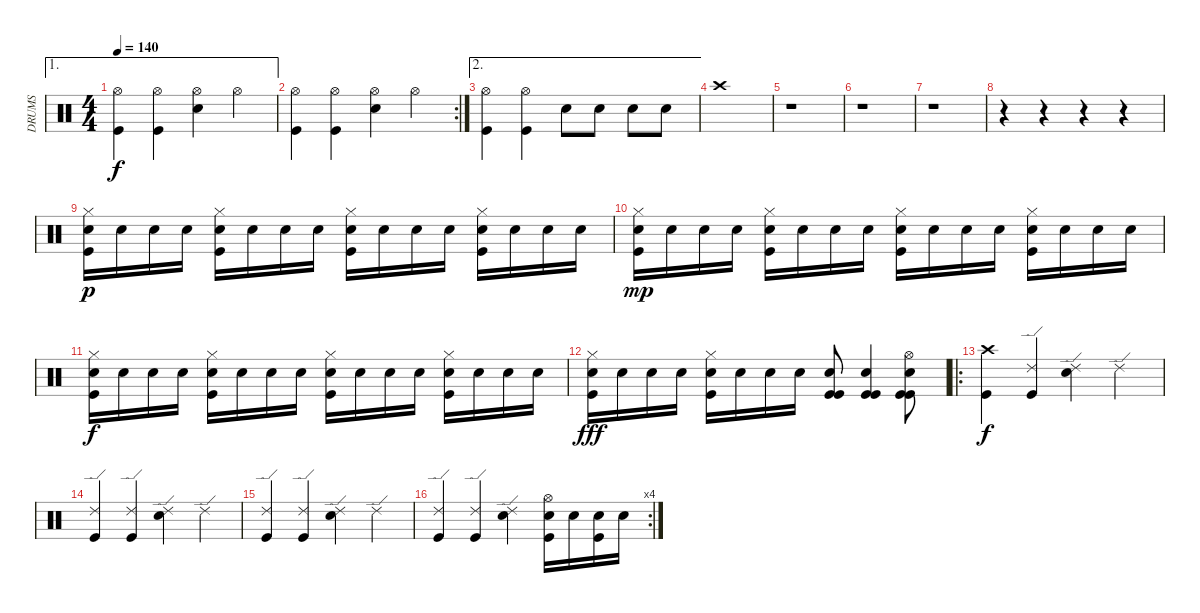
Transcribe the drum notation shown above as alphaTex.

\track ("DRUMS" "DRUMS") {instrument percussion}
\staff {score}
\articulation defaults
\ae 1
\ts (4 4)
\tempo 140
\clef neutral
\ks c
("Hi-Hat (open)" "Kick (hit)").4{dy f} ("Hi-Hat (open)" "Kick (hit)").4 ("Hi-Hat (open)" "Electric Snare (hit)").4 "Hi-Hat (open)".4 |
\rc 2
("Hi-Hat (open)" "Kick (hit)").4 ("Hi-Hat (open)" "Kick (hit)").4 ("Hi-Hat (open)" "Electric Snare (hit)").4 "Hi-Hat (open)".4 |
\ae 2
("Hi-Hat (open)" "Kick (hit)").4 ("Hi-Hat (open)" "Kick (hit)").4 "Electric Snare (hit)".8 "Electric Snare (hit)".8 "Electric Snare (hit)".8 "Electric Snare (hit)".8 |
"Crash high (hit)".1 |
r.1 |
r.1 |
r.1 |
r.4 r.4 r.4 r.4 |
("Electric Snare (hit)" "Hi-Hat (closed)" "Kick (hit)").16{dy p} "Electric Snare (hit)".16 "Electric Snare (hit)".16 "Electric Snare (hit)".16 ("Electric Snare (hit)" "Hi-Hat (closed)" "Kick (hit)").16 "Electric Snare (hit)".16 "Electric Snare (hit)".16 "Electric Snare (hit)".16 ("Electric Snare (hit)" "Hi-Hat (closed)" "Kick (hit)").16 "Electric Snare (hit)".16 "Electric Snare (hit)".16 "Electric Snare (hit)".16 ("Electric Snare (hit)" "Hi-Hat (closed)" "Kick (hit)").16 "Electric Snare (hit)".16 "Electric Snare (hit)".16 "Electric Snare (hit)".16 |
("Electric Snare (hit)" "Hi-Hat (closed)" "Kick (hit)").16{dy mp} "Electric Snare (hit)".16 "Electric Snare (hit)".16 "Electric Snare (hit)".16 ("Electric Snare (hit)" "Hi-Hat (closed)" "Kick (hit)").16 "Electric Snare (hit)".16 "Electric Snare (hit)".16 "Electric Snare (hit)".16 ("Electric Snare (hit)" "Hi-Hat (closed)" "Kick (hit)").16 "Electric Snare (hit)".16 "Electric Snare (hit)".16 "Electric Snare (hit)".16 ("Electric Snare (hit)" "Hi-Hat (closed)" "Kick (hit)").16 "Electric Snare (hit)".16 "Electric Snare (hit)".16 "Electric Snare (hit)".16 |
("Electric Snare (hit)" "Hi-Hat (closed)" "Kick (hit)").16{dy f} "Electric Snare (hit)".16 "Electric Snare (hit)".16 "Electric Snare (hit)".16 ("Electric Snare (hit)" "Hi-Hat (closed)" "Kick (hit)").16 "Electric Snare (hit)".16 "Electric Snare (hit)".16 "Electric Snare (hit)".16 ("Electric Snare (hit)" "Hi-Hat (closed)" "Kick (hit)").16 "Electric Snare (hit)".16 "Electric Snare (hit)".16 "Electric Snare (hit)".16 ("Electric Snare (hit)" "Hi-Hat (closed)" "Kick (hit)").16 "Electric Snare (hit)".16 "Electric Snare (hit)".16 "Electric Snare (hit)".16 |
("Electric Snare (hit)" "Hi-Hat (closed)" "Kick (hit)").16{dy fff} "Electric Snare (hit)".16 "Electric Snare (hit)".16 "Electric Snare (hit)".16 ("Electric Snare (hit)" "Hi-Hat (closed)" "Kick (hit)").16 "Electric Snare (hit)".16 "Electric Snare (hit)".16 "Electric Snare (hit)".16 ("Electric Snare (hit)" "Kick (hit)" "Kick (hit)").8 ("Electric Snare (hit)" "Kick (hit)" "Kick (hit)").4 ("Hi-Hat (open)" "Electric Snare (hit)" "Kick (hit)" "Kick (hit)").8 |
\ro
("Crash high (hit)" "Kick (hit)").4{dy f} ("Ride (edge) 2" "Kick (hit)").4 ("Ride (edge) 2" "Electric Snare (hit)").4 "Ride (edge) 2".4 |
("Ride (edge) 2" "Kick (hit)").4 ("Ride (edge) 2" "Kick (hit)").4 ("Ride (edge) 2" "Electric Snare (hit)").4 "Ride (edge) 2".4 |
("Ride (edge) 2" "Kick (hit)").4 ("Ride (edge) 2" "Kick (hit)").4 ("Ride (edge) 2" "Electric Snare (hit)").4 "Ride (edge) 2".4 |
\rc 4
("Ride (edge) 2" "Kick (hit)").4 ("Ride (edge) 2" "Kick (hit)").4 ("Ride (edge) 2" "Electric Snare (hit)").4 ("Electric Snare (hit)" "Kick (hit)" "Hi-Hat (open)").16 "Electric Snare (hit)".16 ("Electric Snare (hit)" "Kick (hit)").16 "Electric Snare (hit)".16
